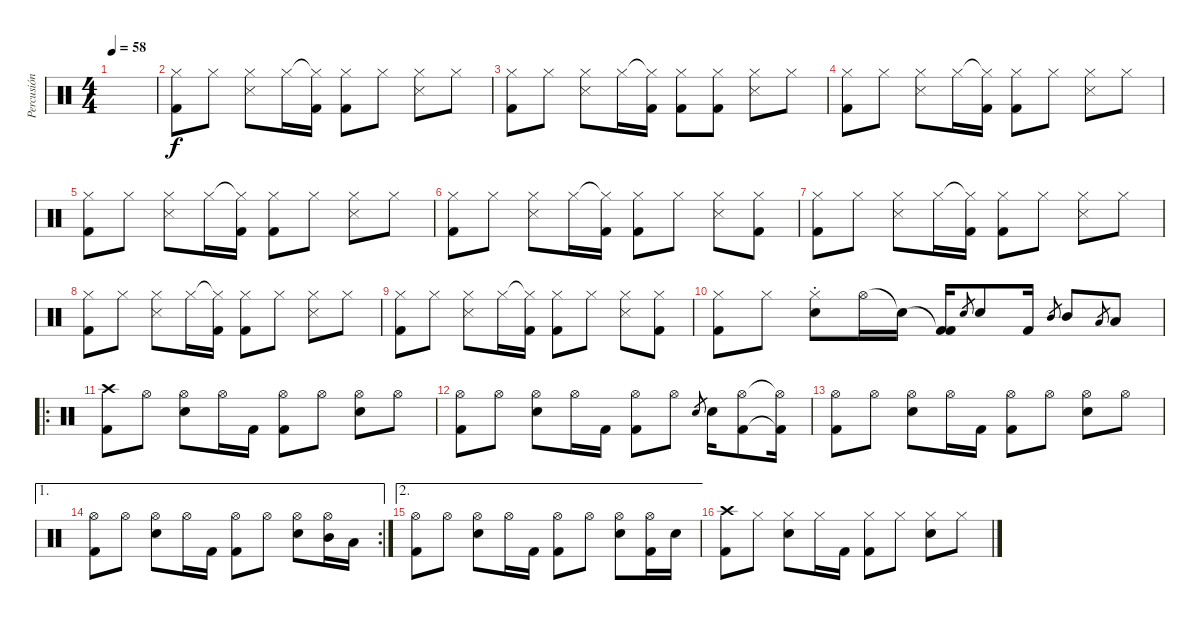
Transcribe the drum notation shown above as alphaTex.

\track ("Percusión" "Percusión") {instrument percussion}
\staff {score}
\articulation defaults
\ts (4 4)
\tempo 58
\clef neutral
\ks c
|
("Hi-Hat (closed)" "Kick (hit) 2").8 "Hi-Hat (closed)".8 ("Hi-Hat (closed)" "Snare (side stick) 3").8 "Hi-Hat (closed)".16 ("Hi-Hat (closed)"{t} "Kick (hit) 2").16 ("Hi-Hat (closed)" "Kick (hit) 2").8 "Hi-Hat (closed)".8 ("Hi-Hat (closed)" "Snare (side stick) 3").8 "Hi-Hat (closed)".8 |
("Hi-Hat (closed)" "Kick (hit) 2").8 "Hi-Hat (closed)".8 ("Hi-Hat (closed)" "Snare (side stick) 3").8 "Hi-Hat (closed)".16 ("Hi-Hat (closed)"{t} "Kick (hit) 2").16 ("Hi-Hat (closed)" "Kick (hit) 2").8 ("Hi-Hat (closed)" "Kick (hit) 2").8 ("Hi-Hat (closed)" "Snare (side stick) 3").8 "Hi-Hat (closed)".8 |
("Hi-Hat (closed)" "Kick (hit) 2").8 "Hi-Hat (closed)".8 ("Hi-Hat (closed)" "Snare (side stick) 3").8 "Hi-Hat (closed)".16 ("Hi-Hat (closed)"{t} "Kick (hit) 2").16 ("Hi-Hat (closed)" "Kick (hit) 2").8 "Hi-Hat (closed)".8 ("Hi-Hat (closed)" "Snare (side stick) 3").8 "Hi-Hat (closed)".8 |
("Hi-Hat (closed)" "Kick (hit) 2").8 "Hi-Hat (closed)".8 ("Hi-Hat (closed)" "Snare (side stick) 3").8 "Hi-Hat (closed)".16 ("Hi-Hat (closed)"{t} "Kick (hit) 2").16 ("Hi-Hat (closed)" "Kick (hit) 2").8 "Hi-Hat (closed)".8 ("Hi-Hat (closed)" "Snare (side stick) 3").8 "Hi-Hat (closed)".8 |
("Hi-Hat (closed)" "Kick (hit) 2").8 "Hi-Hat (closed)".8 ("Hi-Hat (closed)" "Snare (side stick) 3").8 "Hi-Hat (closed)".16 ("Hi-Hat (closed)"{t} "Kick (hit) 2").16 ("Hi-Hat (closed)" "Kick (hit) 2").8 "Hi-Hat (closed)".8 ("Hi-Hat (closed)" "Snare (side stick) 3").8 ("Hi-Hat (closed)" "Kick (hit) 2").8 |
("Hi-Hat (closed)" "Kick (hit) 2").8 "Hi-Hat (closed)".8 ("Hi-Hat (closed)" "Snare (side stick) 3").8 "Hi-Hat (closed)".16 ("Hi-Hat (closed)"{t} "Kick (hit) 2").16 ("Hi-Hat (closed)" "Kick (hit) 2").8 "Hi-Hat (closed)".8 ("Hi-Hat (closed)" "Snare (side stick) 3").8 "Hi-Hat (closed)".8 |
("Hi-Hat (closed)" "Kick (hit) 2").8 "Hi-Hat (closed)".8 ("Hi-Hat (closed)" "Snare (side stick) 3").8 "Hi-Hat (closed)".16 ("Hi-Hat (closed)"{t} "Kick (hit) 2").16 ("Hi-Hat (closed)" "Kick (hit) 2").8 "Hi-Hat (closed)".8 ("Hi-Hat (closed)" "Snare (side stick) 3").8 "Hi-Hat (closed)".8 |
("Hi-Hat (closed)" "Kick (hit) 2").8 "Hi-Hat (closed)".8 ("Hi-Hat (closed)" "Snare (side stick) 3").8 "Hi-Hat (closed)".16 ("Hi-Hat (closed)"{t} "Kick (hit) 2").16 ("Hi-Hat (closed)" "Kick (hit) 2").8 "Hi-Hat (closed)".8 ("Hi-Hat (closed)" "Snare (side stick) 3").8 ("Hi-Hat (closed)" "Kick (hit) 2").8 |
("Hi-Hat (closed)" "Kick (hit) 2").8 "Hi-Hat (closed)".8 ("Hi-Hat (closed)" "Electric Snare (hit)"{st}).8 "Hi-Hat (open)".16 "Snare (hit)"{t}.16 ("Kick (hit) 2"{t} "Kick (hit) 2").16 "Electric Snare (hit)".8{gr} "Electric Snare (hit)".8 "Kick (hit) 2".16 "Mid Tom (hit)".8{gr} "Mid Tom (hit)".8 "Low Tom (hit)".8{gr} "Low Tom (hit)".8 |
\ro
("Crash high (hit)" "Kick (hit) 2").8 "Hi-Hat (open)".8 ("Hi-Hat (open)" "Electric Snare (hit)").8 "Hi-Hat (open)".16 "Kick (hit) 2".16 ("Hi-Hat (open)" "Kick (hit) 2").8 "Hi-Hat (open)".8 ("Hi-Hat (open)" "Electric Snare (hit)").8 "Hi-Hat (open)".8 |
("Hi-Hat (open)" "Kick (hit) 2").8 "Hi-Hat (open)".8 ("Hi-Hat (open)" "Electric Snare (hit)").8 "Hi-Hat (open)".16 "Kick (hit) 2".16 ("Hi-Hat (open)" "Kick (hit) 2").8 "Hi-Hat (open)".8 "Electric Snare (hit)".8{gr} "Electric Snare (hit)".16 ("Hi-Hat (open)" "Kick (hit) 2").8 ("Hi-Hat (open)"{t} "Kick (hit) 2"{t}).16 |
("Hi-Hat (open)" "Kick (hit) 2").8 "Hi-Hat (open)".8 ("Hi-Hat (open)" "Electric Snare (hit)").8 "Hi-Hat (open)".16 "Kick (hit) 2".16 ("Hi-Hat (open)" "Kick (hit) 2").8 "Hi-Hat (open)".8 ("Hi-Hat (open)" "Electric Snare (hit)").8 "Hi-Hat (open)".8 |
\ae 1
\rc 2
("Hi-Hat (open)" "Kick (hit) 2").8 "Hi-Hat (open)".8 ("Hi-Hat (open)" "Electric Snare (hit)").8 "Hi-Hat (open)".16 "Kick (hit) 2".16 ("Hi-Hat (open)" "Kick (hit) 2").8 "Hi-Hat (open)".8 ("Hi-Hat (open)" "Electric Snare (hit)").8 ("Hi-Hat (open)" "Mid Tom (hit)").16 "Low Tom (hit)".16 |
\ae 2
("Hi-Hat (open)" "Kick (hit) 2").8 "Hi-Hat (open)".8 ("Hi-Hat (open)" "Electric Snare (hit)").8 "Hi-Hat (open)".16 "Kick (hit) 2".16 ("Hi-Hat (open)" "Kick (hit) 2").8 "Hi-Hat (open)".8 ("Hi-Hat (open)" "Electric Snare (hit)").8 ("Hi-Hat (open)" "Kick (hit) 2").16 "Electric Snare (hit)".16 |
("Crash high (hit)" "Kick (hit) 2").8 "Hi-Hat (closed)".8 ("Hi-Hat (closed)" "Electric Snare (hit)").8 "Hi-Hat (closed)".16 "Kick (hit) 2".16 ("Hi-Hat (closed)" "Kick (hit) 2").8 "Hi-Hat (closed)".8 ("Hi-Hat (closed)" "Electric Snare (hit)").8 "Hi-Hat (closed)".8
